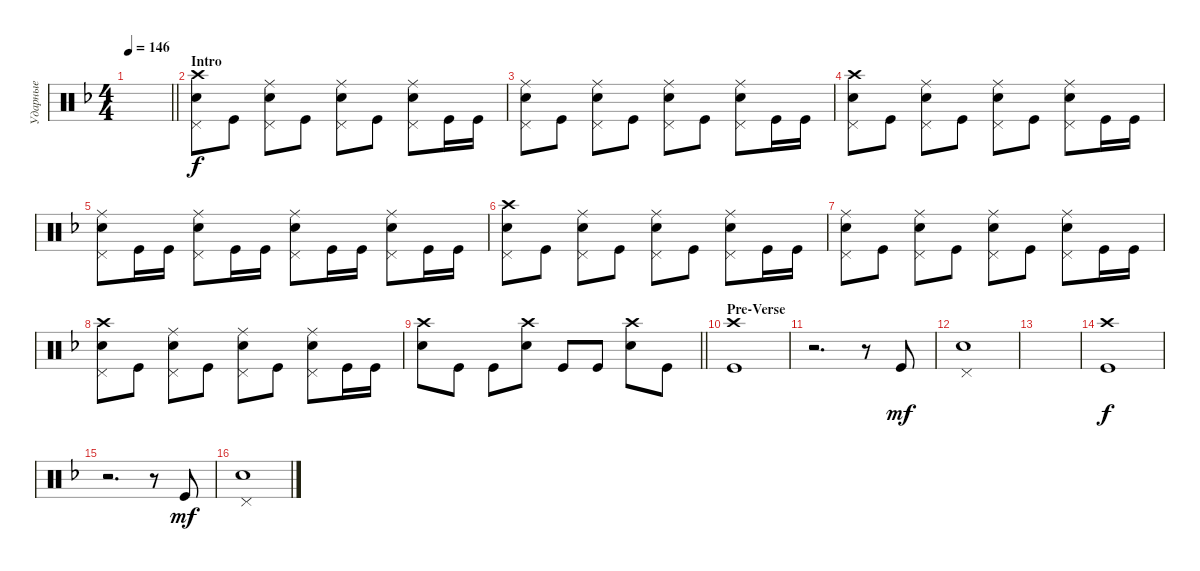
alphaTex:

\track ("Ударные" "Ударные") {instrument percussion}
\staff {score}
\articulation defaults
\ts (4 4)
\tempo 146
\clef neutral
\barLineRight lightlight
\ks dminor
|
\section ("" "Intro")
("Snare (hit) 2" "Pedal Hi-Hat (hit)" "Crash high (hit)").8 "Kick (hit)".8 ("Snare (hit) 2" "Ride (middle)" "Pedal Hi-Hat (hit)").8 "Kick (hit)".8 ("Snare (hit) 2" "Ride (middle)" "Pedal Hi-Hat (hit)").8 "Kick (hit)".8 ("Snare (hit) 2" "Ride (middle)" "Pedal Hi-Hat (hit)").8 "Kick (hit)".16 "Kick (hit)".16 |
("Snare (hit) 2" "Ride (middle)" "Pedal Hi-Hat (hit)").8 "Kick (hit)".8 ("Snare (hit) 2" "Ride (middle)" "Pedal Hi-Hat (hit)").8 "Kick (hit)".8 ("Snare (hit) 2" "Ride (middle)" "Pedal Hi-Hat (hit)").8 "Kick (hit)".8 ("Snare (hit) 2" "Ride (middle)" "Pedal Hi-Hat (hit)").8 "Kick (hit)".16 "Kick (hit)".16 |
("Snare (hit) 2" "Pedal Hi-Hat (hit)" "Crash high (hit)").8 "Kick (hit)".8 ("Snare (hit) 2" "Ride (middle)" "Pedal Hi-Hat (hit)").8 "Kick (hit)".8 ("Snare (hit) 2" "Ride (middle)" "Pedal Hi-Hat (hit)").8 "Kick (hit)".8 ("Snare (hit) 2" "Ride (middle)" "Pedal Hi-Hat (hit)").8 "Kick (hit)".16 "Kick (hit)".16 |
("Snare (hit) 2" "Ride (middle)" "Pedal Hi-Hat (hit)").8 "Kick (hit)".16 "Kick (hit)".16 ("Snare (hit) 2" "Ride (middle)" "Pedal Hi-Hat (hit)").8 "Kick (hit)".16 "Kick (hit)".16 ("Snare (hit) 2" "Ride (middle)" "Pedal Hi-Hat (hit)").8 "Kick (hit)".16 "Kick (hit)".16 ("Snare (hit) 2" "Ride (middle)" "Pedal Hi-Hat (hit)").8 "Kick (hit)".16 "Kick (hit)".16 |
("Snare (hit) 2" "Pedal Hi-Hat (hit)" "Crash high (hit)").8 "Kick (hit)".8 ("Snare (hit) 2" "Ride (middle)" "Pedal Hi-Hat (hit)").8 "Kick (hit)".8 ("Snare (hit) 2" "Ride (middle)" "Pedal Hi-Hat (hit)").8 "Kick (hit)".8 ("Snare (hit) 2" "Ride (middle)" "Pedal Hi-Hat (hit)").8 "Kick (hit)".16 "Kick (hit)".16 |
("Snare (hit) 2" "Ride (middle)" "Pedal Hi-Hat (hit)").8 "Kick (hit)".8 ("Snare (hit) 2" "Ride (middle)" "Pedal Hi-Hat (hit)").8 "Kick (hit)".8 ("Snare (hit) 2" "Ride (middle)" "Pedal Hi-Hat (hit)").8 "Kick (hit)".8 ("Snare (hit) 2" "Ride (middle)" "Pedal Hi-Hat (hit)").8 "Kick (hit)".16 "Kick (hit)".16 |
("Snare (hit) 2" "Pedal Hi-Hat (hit)" "Crash high (hit)").8 "Kick (hit)".8 ("Snare (hit) 2" "Ride (middle)" "Pedal Hi-Hat (hit)").8 "Kick (hit)".8 ("Snare (hit) 2" "Ride (middle)" "Pedal Hi-Hat (hit)").8 "Kick (hit)".8 ("Snare (hit) 2" "Ride (middle)" "Pedal Hi-Hat (hit)").8 "Kick (hit)".16 "Kick (hit)".16 |
\barLineRight lightlight
("Snare (hit) 2" "Crash high (hit)").8 "Kick (hit)".8 "Kick (hit)".8 ("Snare (hit) 2" "Crash high (hit)").8 "Kick (hit)".8 "Kick (hit)".8 ("Snare (hit) 2" "Crash high (hit)").8 "Kick (hit)".8 |
\section ("" "Pre-Verse")
("Kick (hit)" "Crash high (hit)").1 |
r.2{d} r.8 "Kick (hit)".8{dy mf} |
("Snare (hit) 2" "Pedal Hi-Hat (hit)").1 |
|
("Kick (hit)" "Crash high (hit)").1{dy f} |
r.2{d} r.8 "Kick (hit)".8{dy mf} |
("Snare (hit) 2" "Pedal Hi-Hat (hit)").1
